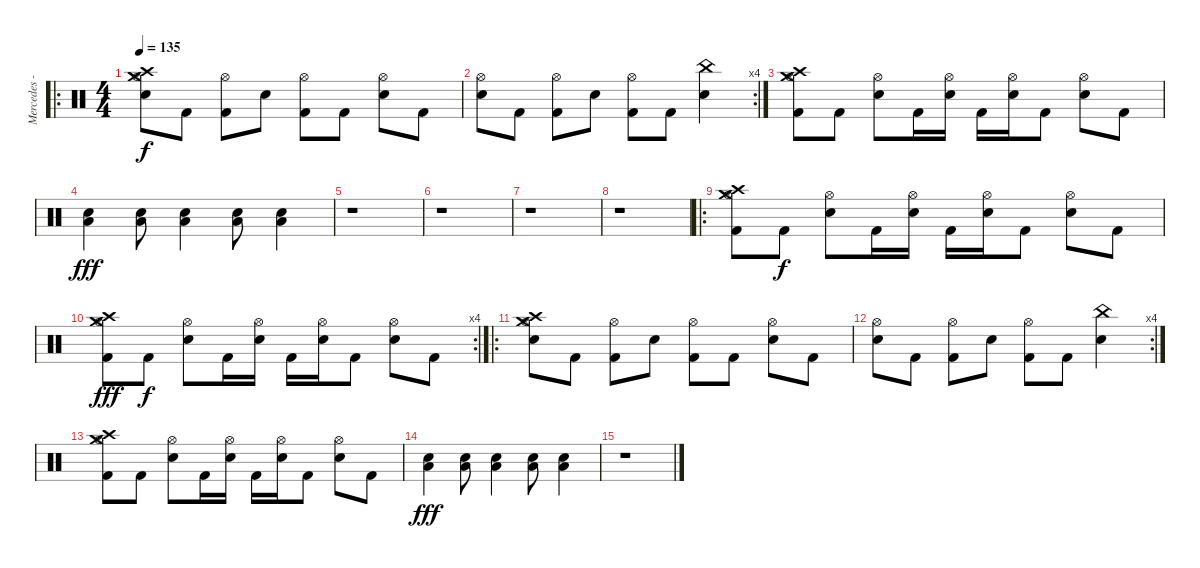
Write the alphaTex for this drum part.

\track ("Mercedes - Bateria" "Mercedes -") {instrument percussion}
\staff {score}
\articulation defaults
\ro
\ts (4 4)
\tempo 135
\clef neutral
\ks c
("Crash high (hit)" "Crash medium (hit)" "Hi-Hat (open)" "Electric Snare (hit)").8{dy f} "Kick (hit) 2".8 ("Hi-Hat (open)" "Kick (hit) 2").8 "Electric Snare (hit)".8 ("Hi-Hat (open)" "Kick (hit) 2").8 "Kick (hit) 2".8 ("Hi-Hat (open)" "Electric Snare (hit)").8 "Kick (hit) 2".8 |
\rc 4
("Hi-Hat (open)" "Electric Snare (hit)").8 "Kick (hit) 2".8 ("Hi-Hat (open)" "Kick (hit) 2").8 "Electric Snare (hit)".8 ("Hi-Hat (open)" "Kick (hit) 2").8 "Kick (hit) 2".8 ("China (hit)" "Electric Snare (hit)").4 |
("Crash high (hit)" "Crash medium (hit)" "Hi-Hat (open)" "Kick (hit) 2").8 "Kick (hit) 2".8 ("Hi-Hat (open)" "Electric Snare (hit)").8 "Kick (hit) 2".16 ("Hi-Hat (open)" "Electric Snare (hit)").16 "Kick (hit) 2".16 ("Hi-Hat (open)" "Electric Snare (hit)").16 "Kick (hit) 2".8 ("Hi-Hat (open)" "Electric Snare (hit)").8 "Kick (hit) 2".8 |
("Low Floor Tom (hit)" "Electric Snare (hit)").4{dy fff} ("Low Floor Tom (hit)" "Electric Snare (hit)").8 ("Low Floor Tom (hit)" "Electric Snare (hit)").4 ("Low Floor Tom (hit)" "Electric Snare (hit)").8 ("Low Floor Tom (hit)" "Electric Snare (hit)").4 |
r.1 |
r.1 |
r.1 |
r.1 |
\ro
("Crash high (hit)" "Crash medium (hit)" "Hi-Hat (open)" "Kick (hit) 2").8 "Kick (hit) 2".8{dy f} ("Hi-Hat (open)" "Electric Snare (hit)").8 "Kick (hit) 2".16 ("Hi-Hat (open)" "Electric Snare (hit)").16 "Kick (hit) 2".16 ("Hi-Hat (open)" "Electric Snare (hit)").16 "Kick (hit) 2".8 ("Hi-Hat (open)" "Electric Snare (hit)").8 "Kick (hit) 2".8 |
\rc 4
("Crash high (hit)" "Crash medium (hit)" "Hi-Hat (open)" "Kick (hit) 2").8{dy fff} "Kick (hit) 2".8{dy f} ("Hi-Hat (open)" "Electric Snare (hit)").8 "Kick (hit) 2".16 ("Hi-Hat (open)" "Electric Snare (hit)").16 "Kick (hit) 2".16 ("Hi-Hat (open)" "Electric Snare (hit)").16 "Kick (hit) 2".8 ("Hi-Hat (open)" "Electric Snare (hit)").8 "Kick (hit) 2".8 |
\ro
("Crash high (hit)" "Crash medium (hit)" "Hi-Hat (open)" "Electric Snare (hit)").8 "Kick (hit) 2".8 ("Hi-Hat (open)" "Kick (hit) 2").8 "Electric Snare (hit)".8 ("Hi-Hat (open)" "Kick (hit) 2").8 "Kick (hit) 2".8 ("Hi-Hat (open)" "Electric Snare (hit)").8 "Kick (hit) 2".8 |
\rc 4
("Hi-Hat (open)" "Electric Snare (hit)").8 "Kick (hit) 2".8 ("Hi-Hat (open)" "Kick (hit) 2").8 "Electric Snare (hit)".8 ("Hi-Hat (open)" "Kick (hit) 2").8 "Kick (hit) 2".8 ("China (hit)" "Electric Snare (hit)").4 |
("Crash high (hit)" "Crash medium (hit)" "Hi-Hat (open)" "Kick (hit) 2").8 "Kick (hit) 2".8 ("Hi-Hat (open)" "Electric Snare (hit)").8 "Kick (hit) 2".16 ("Hi-Hat (open)" "Electric Snare (hit)").16 "Kick (hit) 2".16 ("Hi-Hat (open)" "Electric Snare (hit)").16 "Kick (hit) 2".8 ("Hi-Hat (open)" "Electric Snare (hit)").8 "Kick (hit) 2".8 |
("Low Floor Tom (hit)" "Electric Snare (hit)").4{dy fff} ("Low Floor Tom (hit)" "Electric Snare (hit)").8 ("Low Floor Tom (hit)" "Electric Snare (hit)").4 ("Low Floor Tom (hit)" "Electric Snare (hit)").8 ("Low Floor Tom (hit)" "Electric Snare (hit)").4 |
r.1
